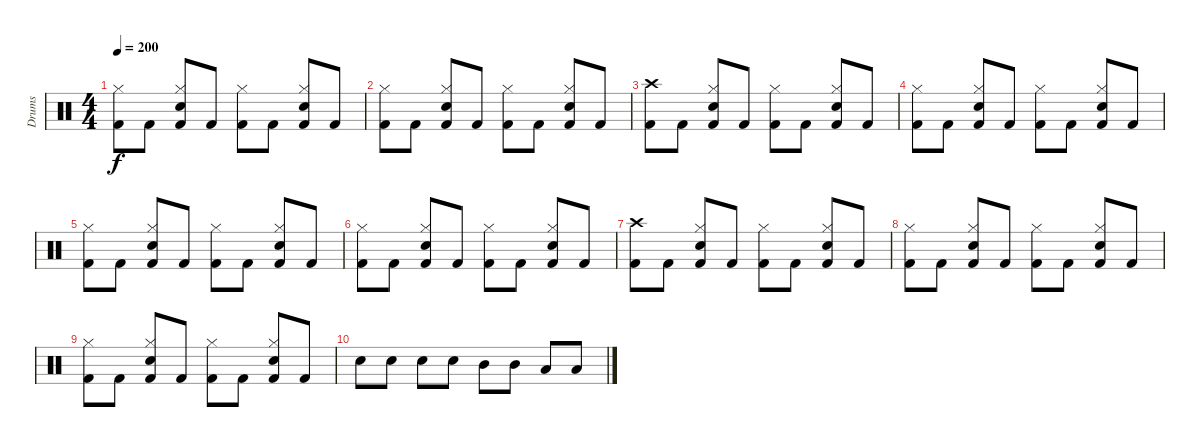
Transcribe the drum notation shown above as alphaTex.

\track ("Drums" "Drums") {instrument percussion}
\staff {score}
\articulation defaults
\ts (4 4)
\tempo 200
\clef neutral
\ks c
("Kick (hit) 2" "Hi-Hat (closed)").8{dy f} "Kick (hit) 2".8 ("Kick (hit) 2" "Hi-Hat (closed)" "Electric Snare (hit)").8 "Kick (hit) 2".8 ("Kick (hit) 2" "Hi-Hat (closed)").8 "Kick (hit) 2".8 ("Kick (hit) 2" "Hi-Hat (closed)" "Electric Snare (hit)").8 "Kick (hit) 2".8 |
("Kick (hit) 2" "Hi-Hat (closed)").8 "Kick (hit) 2".8 ("Kick (hit) 2" "Hi-Hat (closed)" "Electric Snare (hit)").8 "Kick (hit) 2".8 ("Kick (hit) 2" "Hi-Hat (closed)").8 "Kick (hit) 2".8 ("Kick (hit) 2" "Hi-Hat (closed)" "Electric Snare (hit)").8 "Kick (hit) 2".8 |
("Kick (hit) 2" "Crash high (hit)").8 "Kick (hit) 2".8 ("Kick (hit) 2" "Hi-Hat (closed)" "Electric Snare (hit)").8 "Kick (hit) 2".8 ("Kick (hit) 2" "Hi-Hat (closed)").8 "Kick (hit) 2".8 ("Kick (hit) 2" "Hi-Hat (closed)" "Electric Snare (hit)").8 "Kick (hit) 2".8 |
("Kick (hit) 2" "Hi-Hat (closed)").8 "Kick (hit) 2".8 ("Kick (hit) 2" "Hi-Hat (closed)" "Electric Snare (hit)").8 "Kick (hit) 2".8 ("Kick (hit) 2" "Hi-Hat (closed)").8 "Kick (hit) 2".8 ("Kick (hit) 2" "Hi-Hat (closed)" "Electric Snare (hit)").8 "Kick (hit) 2".8 |
("Kick (hit) 2" "Hi-Hat (closed)").8 "Kick (hit) 2".8 ("Kick (hit) 2" "Hi-Hat (closed)" "Electric Snare (hit)").8 "Kick (hit) 2".8 ("Kick (hit) 2" "Hi-Hat (closed)").8 "Kick (hit) 2".8 ("Kick (hit) 2" "Hi-Hat (closed)" "Electric Snare (hit)").8 "Kick (hit) 2".8 |
("Kick (hit) 2" "Hi-Hat (closed)").8 "Kick (hit) 2".8 ("Kick (hit) 2" "Hi-Hat (closed)" "Electric Snare (hit)").8 "Kick (hit) 2".8 ("Kick (hit) 2" "Hi-Hat (closed)").8 "Kick (hit) 2".8 ("Kick (hit) 2" "Hi-Hat (closed)" "Electric Snare (hit)").8 "Kick (hit) 2".8 |
("Kick (hit) 2" "Crash high (hit)").8 "Kick (hit) 2".8 ("Kick (hit) 2" "Hi-Hat (closed)" "Electric Snare (hit)").8 "Kick (hit) 2".8 ("Kick (hit) 2" "Hi-Hat (closed)").8 "Kick (hit) 2".8 ("Kick (hit) 2" "Hi-Hat (closed)" "Electric Snare (hit)").8 "Kick (hit) 2".8 |
("Kick (hit) 2" "Hi-Hat (closed)").8 "Kick (hit) 2".8 ("Kick (hit) 2" "Hi-Hat (closed)" "Electric Snare (hit)").8 "Kick (hit) 2".8 ("Kick (hit) 2" "Hi-Hat (closed)").8 "Kick (hit) 2".8 ("Kick (hit) 2" "Hi-Hat (closed)" "Electric Snare (hit)").8 "Kick (hit) 2".8 |
("Kick (hit) 2" "Hi-Hat (closed)").8 "Kick (hit) 2".8 ("Kick (hit) 2" "Hi-Hat (closed)" "Electric Snare (hit)").8 "Kick (hit) 2".8 ("Kick (hit) 2" "Hi-Hat (closed)").8 "Kick (hit) 2".8 ("Kick (hit) 2" "Hi-Hat (closed)" "Electric Snare (hit)").8 "Kick (hit) 2".8 |
"Electric Snare (hit)".8 "Electric Snare (hit)".8 "Electric Snare (hit)".8 "Electric Snare (hit)".8 "Mid Tom (hit)".8 "Mid Tom (hit)".8 "Low Tom (hit)".8 "Low Tom (hit)".8
